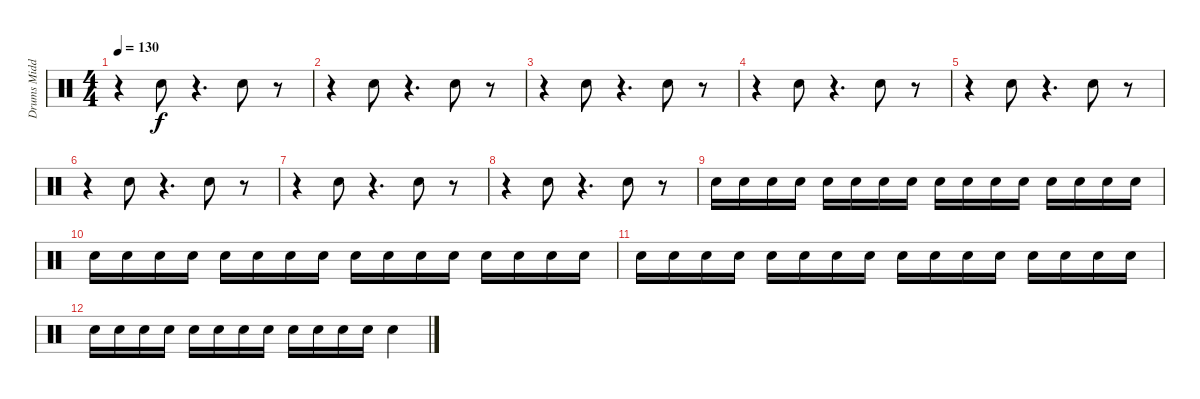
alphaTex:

\track ("Drums Middle" "Drums Midd") {instrument percussion}
\staff {score}
\articulation defaults
\ts (4 4)
\tempo 130
\clef neutral
\ks c
r.4{dy f} "Electric Snare (hit)".8 r.4{d} "Electric Snare (hit)".8 r.8 |
r.4 "Electric Snare (hit)".8 r.4{d} "Electric Snare (hit)".8 r.8 |
r.4 "Electric Snare (hit)".8 r.4{d} "Electric Snare (hit)".8 r.8 |
r.4 "Electric Snare (hit)".8 r.4{d} "Electric Snare (hit)".8 r.8 |
r.4 "Electric Snare (hit)".8 r.4{d} "Electric Snare (hit)".8 r.8 |
r.4 "Electric Snare (hit)".8 r.4{d} "Electric Snare (hit)".8 r.8 |
r.4 "Electric Snare (hit)".8 r.4{d} "Electric Snare (hit)".8 r.8 |
r.4 "Electric Snare (hit)".8 r.4{d} "Electric Snare (hit)".8 r.8 |
"Electric Snare (hit)".16 "Snare (hit) 2".16 "Electric Snare (hit)".16 "Snare (hit) 2".16 "Electric Snare (hit)".16 "Snare (hit) 2".16 "Electric Snare (hit)".16 "Snare (hit) 2".16 "Electric Snare (hit)".16 "Snare (hit) 2".16 "Electric Snare (hit)".16 "Snare (hit) 2".16 "Electric Snare (hit)".16 "Snare (hit) 2".16 "Electric Snare (hit)".16 "Snare (hit) 2".16 |
"Electric Snare (hit)".16 "Snare (hit) 2".16 "Electric Snare (hit)".16 "Snare (hit) 2".16 "Electric Snare (hit)".16 "Snare (hit) 2".16 "Electric Snare (hit)".16 "Snare (hit) 2".16 "Electric Snare (hit)".16 "Snare (hit) 2".16 "Electric Snare (hit)".16 "Snare (hit) 2".16 "Electric Snare (hit)".16 "Snare (hit) 2".16 "Electric Snare (hit)".16 "Snare (hit) 2".16 |
"Electric Snare (hit)".16 "Snare (hit) 2".16 "Electric Snare (hit)".16 "Snare (hit) 2".16 "Electric Snare (hit)".16 "Snare (hit) 2".16 "Electric Snare (hit)".16 "Snare (hit) 2".16 "Electric Snare (hit)".16 "Snare (hit) 2".16 "Electric Snare (hit)".16 "Snare (hit) 2".16 "Electric Snare (hit)".16 "Snare (hit) 2".16 "Electric Snare (hit)".16 "Snare (hit) 2".16 |
"Electric Snare (hit)".16 "Snare (hit) 2".16 "Electric Snare (hit)".16 "Snare (hit) 2".16 "Electric Snare (hit)".16 "Snare (hit) 2".16 "Electric Snare (hit)".16 "Snare (hit) 2".16 "Electric Snare (hit)".16 "Snare (hit) 2".16 "Electric Snare (hit)".16 "Snare (hit) 2".16 "Electric Snare (hit)".4
